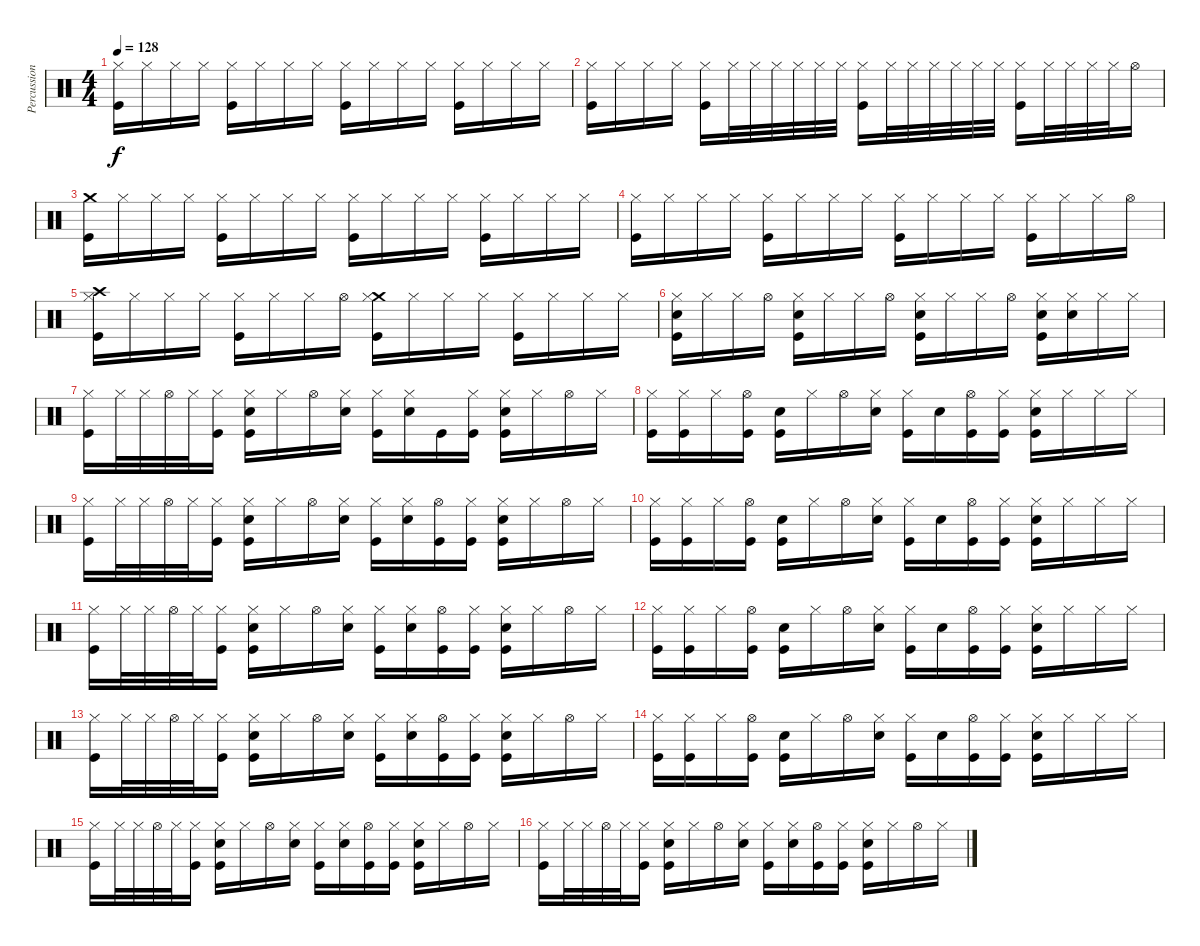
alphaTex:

\track ("Percussion" "Percussion") {instrument percussion}
\staff {score}
\articulation defaults
\ts (4 4)
\tempo 128
\clef neutral
\ks c
("Kick (hit)" "Hi-Hat (closed)").16{dy f} "Hi-Hat (closed)".16 "Hi-Hat (closed)".16 "Hi-Hat (closed)".16 ("Kick (hit)" "Hi-Hat (closed)").16 "Hi-Hat (closed)".16 "Hi-Hat (closed)".16 "Hi-Hat (closed)".16 ("Kick (hit)" "Hi-Hat (closed)").16 "Hi-Hat (closed)".16 "Hi-Hat (closed)".16 "Hi-Hat (closed)".16 ("Kick (hit)" "Hi-Hat (closed)").16 "Hi-Hat (closed)".16 "Hi-Hat (closed)".16 "Hi-Hat (closed)".16 |
("Kick (hit)" "Hi-Hat (closed)").16 "Hi-Hat (closed)".16 "Hi-Hat (closed)".16 "Hi-Hat (closed)".16 ("Kick (hit)" "Hi-Hat (closed)").16 "Hi-Hat (closed)".32 "Hi-Hat (closed)".32 "Hi-Hat (closed)".32 "Hi-Hat (closed)".32 "Hi-Hat (closed)".32 "Hi-Hat (closed)".32 ("Kick (hit)" "Hi-Hat (closed)").16 "Hi-Hat (closed)".32 "Hi-Hat (closed)".32 "Hi-Hat (closed)".32 "Hi-Hat (closed)".32 "Hi-Hat (closed)".32 "Hi-Hat (closed)".32 ("Kick (hit)" "Hi-Hat (closed)").16 "Hi-Hat (closed)".32 "Hi-Hat (closed)".32 "Hi-Hat (closed)".32 "Hi-Hat (closed)".32 "Hi-Hat (open)".16 |
("Kick (hit)" "Crash medium (hit)").16 "Hi-Hat (closed)".16 "Hi-Hat (closed)".16 "Hi-Hat (closed)".16 ("Kick (hit)" "Hi-Hat (closed)").16 "Hi-Hat (closed)".16 "Hi-Hat (closed)".16 "Hi-Hat (closed)".16 ("Kick (hit)" "Hi-Hat (closed)").16 "Hi-Hat (closed)".16 "Hi-Hat (closed)".16 "Hi-Hat (closed)".16 ("Kick (hit)" "Hi-Hat (closed)").16 "Hi-Hat (closed)".16 "Hi-Hat (closed)".16 "Hi-Hat (closed)".16 |
("Kick (hit)" "Hi-Hat (closed)").16 "Hi-Hat (closed)".16 "Hi-Hat (closed)".16 "Hi-Hat (closed)".16 ("Kick (hit)" "Hi-Hat (closed)").16 "Hi-Hat (closed)".16 "Hi-Hat (closed)".16 "Hi-Hat (closed)".16 ("Kick (hit)" "Hi-Hat (closed)").16 "Hi-Hat (closed)".16 "Hi-Hat (closed)".16 "Hi-Hat (closed)".16 ("Kick (hit)" "Hi-Hat (closed)").16 "Hi-Hat (closed)".16 "Hi-Hat (closed)".16 "Hi-Hat (open)".16 |
("Kick (hit)" "Crash high (hit)" "Hi-Hat (closed)").16 "Hi-Hat (closed)".16 "Hi-Hat (closed)".16 "Hi-Hat (closed)".16 ("Kick (hit)" "Hi-Hat (closed)").16 "Hi-Hat (closed)".16 "Hi-Hat (closed)".16 "Hi-Hat (open)".16 ("Kick (hit)" "Crash medium (hit)" "Hi-Hat (closed)").16 "Hi-Hat (closed)".16 "Hi-Hat (closed)".16 "Hi-Hat (closed)".16 ("Kick (hit)" "Hi-Hat (closed)").16 "Hi-Hat (closed)".16 "Hi-Hat (closed)".16 "Hi-Hat (closed)".16 |
("Kick (hit)" "Snare (hit) 2" "Hi-Hat (closed)").16 "Hi-Hat (closed)".16 "Hi-Hat (closed)".16 "Hi-Hat (open)".16 ("Kick (hit)" "Snare (hit) 2" "Hi-Hat (closed)").16 "Hi-Hat (closed)".16 "Hi-Hat (closed)".16 "Hi-Hat (open)".16 ("Kick (hit)" "Snare (hit) 2" "Hi-Hat (closed)").16 "Hi-Hat (closed)".16 "Hi-Hat (closed)".16 "Hi-Hat (open)".16 ("Kick (hit)" "Snare (hit) 2" "Hi-Hat (closed)").16 ("Snare (hit) 2" "Hi-Hat (closed)").16 "Hi-Hat (closed)".16 "Hi-Hat (closed)".16 |
("Kick (hit)" "Hi-Hat (closed)").16 "Hi-Hat (closed)".32 "Hi-Hat (closed)".32 "Hi-Hat (open)".32 "Hi-Hat (closed)".32 ("Kick (hit)" "Hi-Hat (closed)").16 ("Kick (hit)" "Snare (hit) 2" "Hi-Hat (closed)").16 "Hi-Hat (closed)".16 "Hi-Hat (open)".16 ("Snare (hit) 2" "Hi-Hat (closed)").16 ("Kick (hit)" "Hi-Hat (closed)").16 ("Snare (hit) 2" "Hi-Hat (closed)").16 "Kick (hit)".16 ("Kick (hit)" "Hi-Hat (closed)").16 ("Kick (hit)" "Snare (hit) 2" "Hi-Hat (closed)").16 "Hi-Hat (closed)".16 "Hi-Hat (open)".16 "Hi-Hat (closed)".16 |
("Kick (hit)" "Hi-Hat (closed)").16 ("Kick (hit)" "Hi-Hat (closed)").16 "Hi-Hat (closed)".16 ("Kick (hit)" "Hi-Hat (open)").16 ("Kick (hit)" "Snare (hit) 2").16 "Hi-Hat (closed)".16 "Hi-Hat (open)".16 ("Snare (hit) 2" "Hi-Hat (closed)").16 ("Kick (hit)" "Hi-Hat (closed)").16 "Snare (hit) 2".16 ("Kick (hit)" "Hi-Hat (open)").16 ("Kick (hit)" "Hi-Hat (closed)").16 ("Kick (hit)" "Snare (hit) 2" "Hi-Hat (closed)").16 "Hi-Hat (closed)".16 "Hi-Hat (closed)".16 "Hi-Hat (closed)".16 |
("Kick (hit)" "Hi-Hat (closed)").16 "Hi-Hat (closed)".32 "Hi-Hat (closed)".32 "Hi-Hat (open)".32 "Hi-Hat (closed)".32 ("Kick (hit)" "Hi-Hat (closed)").16 ("Kick (hit)" "Snare (hit) 2" "Hi-Hat (closed)").16 "Hi-Hat (closed)".16 "Hi-Hat (open)".16 ("Snare (hit) 2" "Hi-Hat (closed)").16 ("Kick (hit)" "Hi-Hat (closed)").16 ("Snare (hit) 2" "Hi-Hat (closed)").16 ("Kick (hit)" "Hi-Hat (open)").16 ("Kick (hit)" "Hi-Hat (closed)").16 ("Kick (hit)" "Snare (hit) 2" "Hi-Hat (closed)").16 "Hi-Hat (closed)".16 "Hi-Hat (open)".16 "Hi-Hat (closed)".16 |
("Kick (hit)" "Hi-Hat (closed)").16 ("Kick (hit)" "Hi-Hat (closed)").16 "Hi-Hat (closed)".16 ("Kick (hit)" "Hi-Hat (open)").16 ("Kick (hit)" "Snare (hit) 2").16 "Hi-Hat (closed)".16 "Hi-Hat (open)".16 ("Snare (hit) 2" "Hi-Hat (closed)").16 ("Kick (hit)" "Hi-Hat (closed)").16 "Snare (hit) 2".16 ("Kick (hit)" "Hi-Hat (open)").16 ("Kick (hit)" "Hi-Hat (closed)").16 ("Kick (hit)" "Snare (hit) 2" "Hi-Hat (closed)").16 "Hi-Hat (closed)".16 "Hi-Hat (closed)".16 "Hi-Hat (closed)".16 |
("Kick (hit)" "Hi-Hat (closed)").16 "Hi-Hat (closed)".32 "Hi-Hat (closed)".32 "Hi-Hat (open)".32 "Hi-Hat (closed)".32 ("Kick (hit)" "Hi-Hat (closed)").16 ("Kick (hit)" "Snare (hit) 2" "Hi-Hat (closed)").16 "Hi-Hat (closed)".16 "Hi-Hat (open)".16 ("Snare (hit) 2" "Hi-Hat (closed)").16 ("Kick (hit)" "Hi-Hat (closed)").16 ("Snare (hit) 2" "Hi-Hat (closed)").16 ("Kick (hit)" "Hi-Hat (open)").16 ("Kick (hit)" "Hi-Hat (closed)").16 ("Kick (hit)" "Snare (hit) 2" "Hi-Hat (closed)").16 "Hi-Hat (closed)".16 "Hi-Hat (open)".16 "Hi-Hat (closed)".16 |
("Kick (hit)" "Hi-Hat (closed)").16 ("Kick (hit)" "Hi-Hat (closed)").16 "Hi-Hat (closed)".16 ("Kick (hit)" "Hi-Hat (open)").16 ("Kick (hit)" "Snare (hit) 2").16 "Hi-Hat (closed)".16 "Hi-Hat (open)".16 ("Snare (hit) 2" "Hi-Hat (closed)").16 ("Kick (hit)" "Hi-Hat (closed)").16 "Snare (hit) 2".16 ("Kick (hit)" "Hi-Hat (open)").16 ("Kick (hit)" "Hi-Hat (closed)").16 ("Kick (hit)" "Snare (hit) 2" "Hi-Hat (closed)").16 "Hi-Hat (closed)".16 "Hi-Hat (closed)".16 "Hi-Hat (closed)".16 |
("Kick (hit)" "Hi-Hat (closed)").16 "Hi-Hat (closed)".32 "Hi-Hat (closed)".32 "Hi-Hat (open)".32 "Hi-Hat (closed)".32 ("Kick (hit)" "Hi-Hat (closed)").16 ("Kick (hit)" "Snare (hit) 2" "Hi-Hat (closed)").16 "Hi-Hat (closed)".16 "Hi-Hat (open)".16 ("Snare (hit) 2" "Hi-Hat (closed)").16 ("Kick (hit)" "Hi-Hat (closed)").16 ("Snare (hit) 2" "Hi-Hat (closed)").16 ("Kick (hit)" "Hi-Hat (open)").16 ("Kick (hit)" "Hi-Hat (closed)").16 ("Kick (hit)" "Snare (hit) 2" "Hi-Hat (closed)").16 "Hi-Hat (closed)".16 "Hi-Hat (open)".16 "Hi-Hat (closed)".16 |
("Kick (hit)" "Hi-Hat (closed)").16 ("Kick (hit)" "Hi-Hat (closed)").16 "Hi-Hat (closed)".16 ("Kick (hit)" "Hi-Hat (open)").16 ("Kick (hit)" "Snare (hit) 2").16 "Hi-Hat (closed)".16 "Hi-Hat (open)".16 ("Snare (hit) 2" "Hi-Hat (closed)").16 ("Kick (hit)" "Hi-Hat (closed)").16 "Snare (hit) 2".16 ("Kick (hit)" "Hi-Hat (open)").16 ("Kick (hit)" "Hi-Hat (closed)").16 ("Kick (hit)" "Snare (hit) 2" "Hi-Hat (closed)").16 "Hi-Hat (closed)".16 "Hi-Hat (closed)".16 "Hi-Hat (closed)".16 |
("Kick (hit)" "Hi-Hat (closed)").16 "Hi-Hat (closed)".32 "Hi-Hat (closed)".32 "Hi-Hat (open)".32 "Hi-Hat (closed)".32 ("Kick (hit)" "Hi-Hat (closed)").16 ("Kick (hit)" "Snare (hit) 2" "Hi-Hat (closed)").16 "Hi-Hat (closed)".16 "Hi-Hat (open)".16 ("Snare (hit) 2" "Hi-Hat (closed)").16 ("Kick (hit)" "Hi-Hat (closed)").16 ("Snare (hit) 2" "Hi-Hat (closed)").16 ("Kick (hit)" "Hi-Hat (open)").16 ("Kick (hit)" "Hi-Hat (closed)").16 ("Kick (hit)" "Snare (hit) 2" "Hi-Hat (closed)").16 "Hi-Hat (closed)".16 "Hi-Hat (open)".16 "Hi-Hat (closed)".16 |
("Kick (hit)" "Hi-Hat (closed)").16 "Hi-Hat (closed)".32 "Hi-Hat (closed)".32 "Hi-Hat (open)".32 "Hi-Hat (closed)".32 ("Kick (hit)" "Hi-Hat (closed)").16 ("Kick (hit)" "Snare (hit) 2" "Hi-Hat (closed)").16 "Hi-Hat (closed)".16 "Hi-Hat (open)".16 ("Snare (hit) 2" "Hi-Hat (closed)").16 ("Kick (hit)" "Hi-Hat (closed)").16 ("Snare (hit) 2" "Hi-Hat (closed)").16 ("Kick (hit)" "Hi-Hat (open)").16 ("Kick (hit)" "Hi-Hat (closed)").16 ("Kick (hit)" "Snare (hit) 2" "Hi-Hat (closed)").16 "Hi-Hat (closed)".16 "Hi-Hat (open)".16 "Hi-Hat (closed)".16
